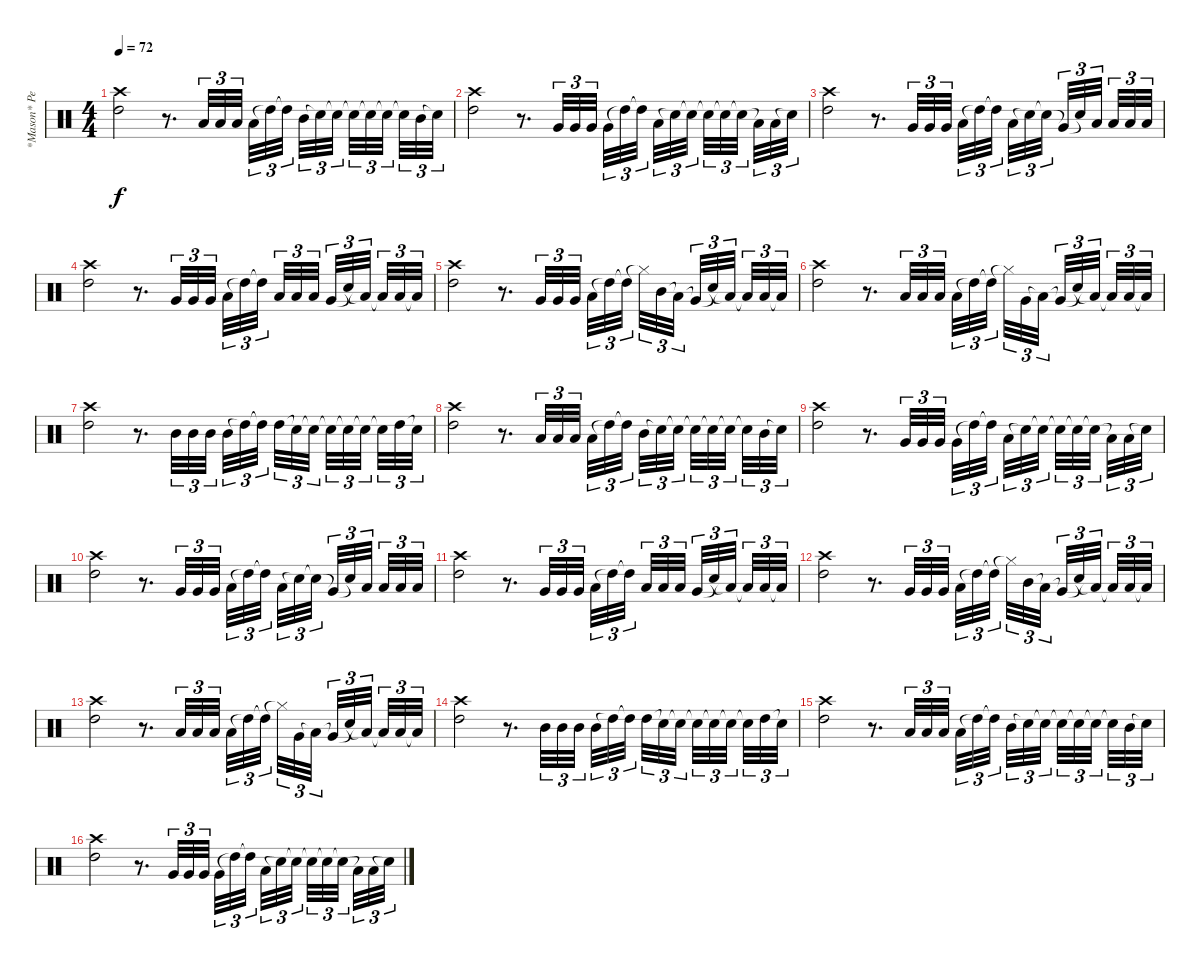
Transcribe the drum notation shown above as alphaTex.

\track ("*Mason* Percussion" "*Mason* Pe") {instrument percussion}
\staff {score}
\articulation defaults
\ts (4 4)
\tempo 72
\clef neutral
\ks c
("Crash high (hit)" "High Tom (hit)").2{dy f} r.8{d} "Low Tom (hit)".32{tu (3 2)} "Low Tom (hit)".32{tu (3 2)} "Low Tom (hit)".32{tu (3 2)} "Low Tom (hit)".32{tu (3 2)} "High Tom (hit)"{t}.32{tu (3 2)} "High Tom (hit)"{t}.32{tu (3 2) beam splitsecondary} "Mid Tom (hit)".32{tu (3 2)} "Snare (hit)"{t}.32{tu (3 2)} "Snare (hit)"{t}.32{tu (3 2) beam splitsecondary} "Snare (hit)"{t}.32{tu (3 2)} "Snare (hit)"{t}.32{tu (3 2)} "Snare (hit)"{t}.32{tu (3 2) beam splitsecondary} "Snare (hit)"{t}.32{tu (3 2)} "Mid Tom (hit)".32{tu (3 2)} "Snare (hit)"{t}.32{tu (3 2)} |
("Crash high (hit)" "High Tom (hit)").2{volume 0} r.8{d} "Very Low Tom (hit)".32{tu (3 2)} "Very Low Tom (hit)".32{tu (3 2)} "Very Low Tom (hit)".32{tu (3 2)} "Very Low Tom (hit)".32{tu (3 2)} "High Tom (hit)"{t}.32{tu (3 2)} "High Tom (hit)"{t}.32{tu (3 2) beam splitsecondary} "Low Tom (hit)".32{tu (3 2)} "Snare (hit)"{t}.32{tu (3 2)} "Snare (hit)"{t}.32{tu (3 2) beam splitsecondary} "Snare (hit)"{t}.32{tu (3 2)} "Snare (hit)"{t}.32{tu (3 2)} "Snare (hit)"{t}.32{tu (3 2) beam splitsecondary} "Low Tom (hit)"{t}.32{tu (3 2)} "Low Tom (hit)".32{tu (3 2)} "Snare (hit)"{t}.32{tu (3 2)} |
("Crash high (hit)" "High Tom (hit)").2 r.8{d} "Very Low Tom (hit)".32{tu (3 2)} "Very Low Tom (hit)".32{tu (3 2)} "Very Low Tom (hit)".32{tu (3 2)} "Low Tom (hit)".32{tu (3 2)} "High Tom (hit)"{t}.32{tu (3 2)} "High Tom (hit)"{t}.32{tu (3 2) beam splitsecondary} "Low Tom (hit)".32{tu (3 2)} "Snare (hit)"{t}.32{tu (3 2)} "Snare (hit)"{t}.32{tu (3 2) beam splitsecondary} "Very Low Tom (hit)"{t}.32{tu (3 2)} "Snare (hit)"{t}.32{tu (3 2)} "Low Tom (hit)".32{tu (3 2) beam splitsecondary} "Low Tom (hit)".32{tu (3 2)} "Low Tom (hit)".32{tu (3 2)} "Low Tom (hit)".32{tu (3 2)} |
("Crash high (hit)" "High Tom (hit)").2{volume 16} r.8{d} "Very Low Tom (hit)".32{tu (3 2)} "Very Low Tom (hit)".32{tu (3 2)} "Very Low Tom (hit)".32{tu (3 2)} "Low Tom (hit)".32{tu (3 2)} "High Tom (hit)"{t}.32{tu (3 2)} "High Tom (hit)"{t}.32{tu (3 2) beam splitsecondary} "Low Tom (hit)".32{tu (3 2)} "Low Tom (hit)".32{tu (3 2)} "Low Tom (hit)".32{tu (3 2) beam splitsecondary} "Very Low Tom (hit)".32{tu (3 2)} "Snare (hit)"{t}.32{tu (3 2)} "Low Tom (hit)"{t}.32{tu (3 2) beam splitsecondary} "Low Tom (hit)"{t}.32{tu (3 2)} "Low Tom (hit)".32{tu (3 2)} "Low Tom (hit)"{t}.32{tu (3 2)} |
("Crash high (hit)" "High Tom (hit)").2 r.8{d} "Very Low Tom (hit)".32{tu (3 2)} "Very Low Tom (hit)".32{tu (3 2)} "Very Low Tom (hit)".32{tu (3 2)} "Low Tom (hit)".32{tu (3 2)} "High Tom (hit)"{t}.32{tu (3 2)} "High Tom (hit)"{t}.32{tu (3 2) beam splitsecondary} "Hi-Hat (closed)"{t}.32{tu (3 2)} "Mid Tom (hit)".32{tu (3 2)} "Low Tom (hit)"{t}.32{tu (3 2) beam splitsecondary} "Very Low Tom (hit)"{t}.32{tu (3 2)} "Snare (hit)"{t}.32{tu (3 2)} "Low Tom (hit)"{t}.32{tu (3 2) beam splitsecondary} "Low Tom (hit)"{t}.32{tu (3 2) volume 0} "Low Tom (hit)".32{tu (3 2)} "Low Tom (hit)"{t}.32{tu (3 2)} |
("Crash high (hit)" "High Tom (hit)").2 r.8{d} "Low Floor Tom (hit)".32{tu (3 2)} "Low Floor Tom (hit)".32{tu (3 2)} "Low Floor Tom (hit)".32{tu (3 2)} "Low Tom (hit)".32{tu (3 2)} "High Tom (hit)"{t}.32{tu (3 2)} "High Tom (hit)"{t}.32{tu (3 2) beam splitsecondary} "Hi-Hat (closed)"{t}.32{tu (3 2)} "Very Low Tom (hit)".32{tu (3 2)} "Low Tom (hit)"{t}.32{tu (3 2) beam splitsecondary} "Very Low Tom (hit)"{t}.32{tu (3 2)} "Snare (hit)"{t}.32{tu (3 2)} "Low Tom (hit)"{t}.32{tu (3 2) beam splitsecondary} "Low Tom (hit)"{t}.32{tu (3 2)} "Low Tom (hit)".32{tu (3 2)} "Low Tom (hit)"{t}.32{tu (3 2)} |
("Crash high (hit)" "High Tom (hit)").2{volume 0} r.8{d volume 16} "Mid Tom (hit)".32{tu (3 2)} "Mid Tom (hit)".32{tu (3 2)} "Mid Tom (hit)".32{tu (3 2)} "Mid Tom (hit)".32{tu (3 2)} "High Tom (hit)"{t}.32{tu (3 2)} "High Tom (hit)"{t}.32{tu (3 2) beam splitsecondary} "High Tom (hit)".32{tu (3 2)} "Snare (hit)"{t}.32{tu (3 2)} "Snare (hit)"{t}.32{tu (3 2) beam splitsecondary} "Snare (hit)"{t}.32{tu (3 2)} "Snare (hit)"{t}.32{tu (3 2)} "Snare (hit)"{t}.32{tu (3 2) beam splitsecondary} "Snare (hit)"{t}.32{tu (3 2)} "High Tom (hit)".32{tu (3 2)} "Snare (hit)"{t}.32{tu (3 2)} |
("Crash high (hit)" "High Tom (hit)").2 r.8{d} "Low Tom (hit)".32{tu (3 2)} "Low Tom (hit)".32{tu (3 2)} "Low Tom (hit)".32{tu (3 2)} "Low Tom (hit)".32{tu (3 2)} "High Tom (hit)"{t}.32{tu (3 2)} "High Tom (hit)"{t}.32{tu (3 2) beam splitsecondary} "Mid Tom (hit)".32{tu (3 2)} "Snare (hit)"{t}.32{tu (3 2)} "Snare (hit)"{t}.32{tu (3 2) beam splitsecondary} "Snare (hit)"{t}.32{tu (3 2)} "Snare (hit)"{t}.32{tu (3 2)} "Snare (hit)"{t}.32{tu (3 2) beam splitsecondary} "Snare (hit)"{t}.32{tu (3 2)} "Mid Tom (hit)".32{tu (3 2)} "Snare (hit)"{t}.32{tu (3 2)} |
("Crash high (hit)" "High Tom (hit)").2{volume 0} r.8{d} "Very Low Tom (hit)".32{tu (3 2)} "Very Low Tom (hit)".32{tu (3 2)} "Very Low Tom (hit)".32{tu (3 2)} "Very Low Tom (hit)".32{tu (3 2)} "High Tom (hit)"{t}.32{tu (3 2)} "High Tom (hit)"{t}.32{tu (3 2) beam splitsecondary} "Low Tom (hit)".32{tu (3 2)} "Snare (hit)"{t}.32{tu (3 2)} "Snare (hit)"{t}.32{tu (3 2) beam splitsecondary} "Snare (hit)"{t}.32{tu (3 2)} "Snare (hit)"{t}.32{tu (3 2)} "Snare (hit)"{t}.32{tu (3 2) beam splitsecondary} "Low Tom (hit)"{t}.32{tu (3 2)} "Low Tom (hit)".32{tu (3 2)} "Snare (hit)"{t}.32{tu (3 2)} |
("Crash high (hit)" "High Tom (hit)").2 r.8{d} "Very Low Tom (hit)".32{tu (3 2)} "Very Low Tom (hit)".32{tu (3 2)} "Very Low Tom (hit)".32{tu (3 2)} "Low Tom (hit)".32{tu (3 2)} "High Tom (hit)"{t}.32{tu (3 2)} "High Tom (hit)"{t}.32{tu (3 2) beam splitsecondary} "Low Tom (hit)".32{tu (3 2)} "Snare (hit)"{t}.32{tu (3 2)} "Snare (hit)"{t}.32{tu (3 2) beam splitsecondary} "Very Low Tom (hit)"{t}.32{tu (3 2)} "Snare (hit)"{t}.32{tu (3 2)} "Low Tom (hit)".32{tu (3 2) beam splitsecondary} "Low Tom (hit)".32{tu (3 2)} "Low Tom (hit)".32{tu (3 2)} "Low Tom (hit)".32{tu (3 2)} |
("Crash high (hit)" "High Tom (hit)").2{volume 16} r.8{d} "Very Low Tom (hit)".32{tu (3 2)} "Very Low Tom (hit)".32{tu (3 2)} "Very Low Tom (hit)".32{tu (3 2)} "Low Tom (hit)".32{tu (3 2)} "High Tom (hit)"{t}.32{tu (3 2)} "High Tom (hit)"{t}.32{tu (3 2) beam splitsecondary} "Low Tom (hit)".32{tu (3 2)} "Low Tom (hit)".32{tu (3 2)} "Low Tom (hit)".32{tu (3 2) beam splitsecondary} "Very Low Tom (hit)".32{tu (3 2)} "Snare (hit)"{t}.32{tu (3 2)} "Low Tom (hit)"{t}.32{tu (3 2) beam splitsecondary} "Low Tom (hit)"{t}.32{tu (3 2)} "Low Tom (hit)".32{tu (3 2)} "Low Tom (hit)"{t}.32{tu (3 2)} |
("Crash high (hit)" "High Tom (hit)").2 r.8{d} "Very Low Tom (hit)".32{tu (3 2)} "Very Low Tom (hit)".32{tu (3 2)} "Very Low Tom (hit)".32{tu (3 2)} "Low Tom (hit)".32{tu (3 2)} "High Tom (hit)"{t}.32{tu (3 2)} "High Tom (hit)"{t}.32{tu (3 2) beam splitsecondary} "Hi-Hat (closed)"{t}.32{tu (3 2)} "Mid Tom (hit)".32{tu (3 2)} "Low Tom (hit)"{t}.32{tu (3 2) beam splitsecondary} "Very Low Tom (hit)"{t}.32{tu (3 2)} "Snare (hit)"{t}.32{tu (3 2)} "Low Tom (hit)"{t}.32{tu (3 2) beam splitsecondary} "Low Tom (hit)"{t}.32{tu (3 2) volume 0} "Low Tom (hit)".32{tu (3 2)} "Low Tom (hit)"{t}.32{tu (3 2)} |
("Crash high (hit)" "High Tom (hit)").2 r.8{d} "Low Floor Tom (hit)".32{tu (3 2)} "Low Floor Tom (hit)".32{tu (3 2)} "Low Floor Tom (hit)".32{tu (3 2)} "Low Tom (hit)".32{tu (3 2)} "High Tom (hit)"{t}.32{tu (3 2)} "High Tom (hit)"{t}.32{tu (3 2) beam splitsecondary} "Hi-Hat (closed)"{t}.32{tu (3 2)} "Very Low Tom (hit)".32{tu (3 2)} "Low Tom (hit)"{t}.32{tu (3 2) beam splitsecondary} "Very Low Tom (hit)"{t}.32{tu (3 2)} "Snare (hit)"{t}.32{tu (3 2)} "Low Tom (hit)"{t}.32{tu (3 2) beam splitsecondary} "Low Tom (hit)"{t}.32{tu (3 2)} "Low Tom (hit)".32{tu (3 2)} "Low Tom (hit)"{t}.32{tu (3 2)} |
("Crash high (hit)" "High Tom (hit)").2{volume 0} r.8{d volume 16} "Mid Tom (hit)".32{tu (3 2)} "Mid Tom (hit)".32{tu (3 2)} "Mid Tom (hit)".32{tu (3 2)} "Mid Tom (hit)".32{tu (3 2)} "High Tom (hit)"{t}.32{tu (3 2)} "High Tom (hit)"{t}.32{tu (3 2) beam splitsecondary} "High Tom (hit)".32{tu (3 2)} "Snare (hit)"{t}.32{tu (3 2)} "Snare (hit)"{t}.32{tu (3 2) beam splitsecondary} "Snare (hit)"{t}.32{tu (3 2)} "Snare (hit)"{t}.32{tu (3 2)} "Snare (hit)"{t}.32{tu (3 2) beam splitsecondary} "Snare (hit)"{t}.32{tu (3 2)} "High Tom (hit)".32{tu (3 2)} "Snare (hit)"{t}.32{tu (3 2)} |
("Crash high (hit)" "High Tom (hit)").2 r.8{d} "Low Tom (hit)".32{tu (3 2)} "Low Tom (hit)".32{tu (3 2)} "Low Tom (hit)".32{tu (3 2)} "Low Tom (hit)".32{tu (3 2)} "High Tom (hit)"{t}.32{tu (3 2)} "High Tom (hit)"{t}.32{tu (3 2) beam splitsecondary} "Mid Tom (hit)".32{tu (3 2)} "Snare (hit)"{t}.32{tu (3 2)} "Snare (hit)"{t}.32{tu (3 2) beam splitsecondary} "Snare (hit)"{t}.32{tu (3 2)} "Snare (hit)"{t}.32{tu (3 2)} "Snare (hit)"{t}.32{tu (3 2) beam splitsecondary} "Snare (hit)"{t}.32{tu (3 2)} "Mid Tom (hit)".32{tu (3 2)} "Snare (hit)"{t}.32{tu (3 2)} |
("Crash high (hit)" "High Tom (hit)").2{volume 0} r.8{d} "Very Low Tom (hit)".32{tu (3 2)} "Very Low Tom (hit)".32{tu (3 2)} "Very Low Tom (hit)".32{tu (3 2)} "Very Low Tom (hit)".32{tu (3 2)} "High Tom (hit)"{t}.32{tu (3 2)} "High Tom (hit)"{t}.32{tu (3 2) beam splitsecondary} "Low Tom (hit)".32{tu (3 2)} "Snare (hit)"{t}.32{tu (3 2)} "Snare (hit)"{t}.32{tu (3 2) beam splitsecondary} "Snare (hit)"{t}.32{tu (3 2)} "Snare (hit)"{t}.32{tu (3 2)} "Snare (hit)"{t}.32{tu (3 2) beam splitsecondary} "Low Tom (hit)"{t}.32{tu (3 2)} "Low Tom (hit)".32{tu (3 2)} "Snare (hit)"{t}.32{tu (3 2)}
